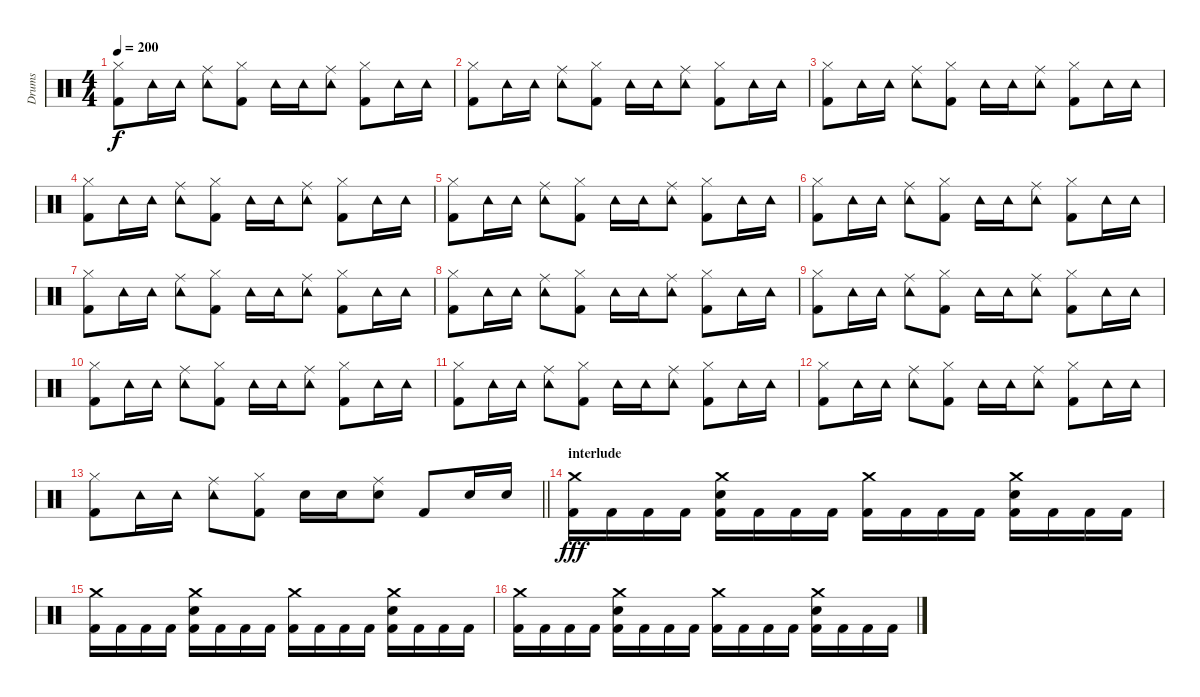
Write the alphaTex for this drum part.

\track ("Drums" "Drums") {instrument percussion}
\staff {score}
\articulation defaults
\ts (4 4)
\tempo 200
\clef neutral
\ks c
("Hi-Hat (closed)" "Kick (hit) 2").8{dy f} "Tambourine (hit)".16 "Tambourine (hit)".16 ("Ride (middle)" "Tambourine (hit)").8 ("Hi-Hat (closed)" "Kick (hit) 2").8 "Tambourine (hit)".16 "Tambourine (hit)".16 ("Ride (middle)" "Tambourine (hit)").8 ("Hi-Hat (closed)" "Kick (hit) 2").8 "Tambourine (hit)".16 "Tambourine (hit)".16 |
("Hi-Hat (closed)" "Kick (hit) 2").8 "Tambourine (hit)".16 "Tambourine (hit)".16 ("Ride (middle)" "Tambourine (hit)").8 ("Hi-Hat (closed)" "Kick (hit) 2").8 "Tambourine (hit)".16 "Tambourine (hit)".16 ("Ride (middle)" "Tambourine (hit)").8 ("Hi-Hat (closed)" "Kick (hit) 2").8 "Tambourine (hit)".16 "Tambourine (hit)".16 |
("Hi-Hat (closed)" "Kick (hit) 2").8 "Tambourine (hit)".16 "Tambourine (hit)".16 ("Ride (middle)" "Tambourine (hit)").8 ("Hi-Hat (closed)" "Kick (hit) 2").8 "Tambourine (hit)".16 "Tambourine (hit)".16 ("Ride (middle)" "Tambourine (hit)").8 ("Hi-Hat (closed)" "Kick (hit) 2").8 "Tambourine (hit)".16 "Tambourine (hit)".16 |
("Hi-Hat (closed)" "Kick (hit) 2").8 "Tambourine (hit)".16 "Tambourine (hit)".16 ("Ride (middle)" "Tambourine (hit)").8 ("Hi-Hat (closed)" "Kick (hit) 2").8 "Tambourine (hit)".16 "Tambourine (hit)".16 ("Ride (middle)" "Tambourine (hit)").8 ("Hi-Hat (closed)" "Kick (hit) 2").8 "Tambourine (hit)".16 "Tambourine (hit)".16 |
("Hi-Hat (closed)" "Kick (hit) 2").8 "Tambourine (hit)".16 "Tambourine (hit)".16 ("Ride (middle)" "Tambourine (hit)").8 ("Hi-Hat (closed)" "Kick (hit) 2").8 "Tambourine (hit)".16 "Tambourine (hit)".16 ("Ride (middle)" "Tambourine (hit)").8 ("Hi-Hat (closed)" "Kick (hit) 2").8 "Tambourine (hit)".16 "Tambourine (hit)".16 |
("Hi-Hat (closed)" "Kick (hit) 2").8 "Tambourine (hit)".16 "Tambourine (hit)".16 ("Ride (middle)" "Tambourine (hit)").8 ("Hi-Hat (closed)" "Kick (hit) 2").8 "Tambourine (hit)".16 "Tambourine (hit)".16 ("Ride (middle)" "Tambourine (hit)").8 ("Hi-Hat (closed)" "Kick (hit) 2").8 "Tambourine (hit)".16 "Tambourine (hit)".16 |
("Hi-Hat (closed)" "Kick (hit) 2").8 "Tambourine (hit)".16 "Tambourine (hit)".16 ("Ride (middle)" "Tambourine (hit)").8 ("Hi-Hat (closed)" "Kick (hit) 2").8 "Tambourine (hit)".16 "Tambourine (hit)".16 ("Ride (middle)" "Tambourine (hit)").8 ("Hi-Hat (closed)" "Kick (hit) 2").8 "Tambourine (hit)".16 "Tambourine (hit)".16 |
("Hi-Hat (closed)" "Kick (hit) 2").8 "Tambourine (hit)".16 "Tambourine (hit)".16 ("Ride (middle)" "Tambourine (hit)").8 ("Hi-Hat (closed)" "Kick (hit) 2").8 "Tambourine (hit)".16 "Tambourine (hit)".16 ("Ride (middle)" "Tambourine (hit)").8 ("Hi-Hat (closed)" "Kick (hit) 2").8 "Tambourine (hit)".16 "Tambourine (hit)".16 |
("Hi-Hat (closed)" "Kick (hit) 2").8 "Tambourine (hit)".16 "Tambourine (hit)".16 ("Ride (middle)" "Tambourine (hit)").8 ("Hi-Hat (closed)" "Kick (hit) 2").8 "Tambourine (hit)".16 "Tambourine (hit)".16 ("Ride (middle)" "Tambourine (hit)").8 ("Hi-Hat (closed)" "Kick (hit) 2").8 "Tambourine (hit)".16 "Tambourine (hit)".16 |
("Hi-Hat (closed)" "Kick (hit) 2").8 "Tambourine (hit)".16 "Tambourine (hit)".16 ("Ride (middle)" "Tambourine (hit)").8 ("Hi-Hat (closed)" "Kick (hit) 2").8 "Tambourine (hit)".16 "Tambourine (hit)".16 ("Ride (middle)" "Tambourine (hit)").8 ("Hi-Hat (closed)" "Kick (hit) 2").8 "Tambourine (hit)".16 "Tambourine (hit)".16 |
("Hi-Hat (closed)" "Kick (hit) 2").8 "Tambourine (hit)".16 "Tambourine (hit)".16 ("Ride (middle)" "Tambourine (hit)").8 ("Hi-Hat (closed)" "Kick (hit) 2").8 "Tambourine (hit)".16 "Tambourine (hit)".16 ("Ride (middle)" "Tambourine (hit)").8 ("Hi-Hat (closed)" "Kick (hit) 2").8 "Tambourine (hit)".16 "Tambourine (hit)".16 |
("Hi-Hat (closed)" "Kick (hit) 2").8 "Tambourine (hit)".16 "Tambourine (hit)".16 ("Ride (middle)" "Tambourine (hit)").8 ("Hi-Hat (closed)" "Kick (hit) 2").8 "Tambourine (hit)".16 "Tambourine (hit)".16 ("Ride (middle)" "Tambourine (hit)").8 ("Hi-Hat (closed)" "Kick (hit) 2").8 "Tambourine (hit)".16 "Tambourine (hit)".16 |
\barLineRight lightlight
("Hi-Hat (closed)" "Kick (hit) 2").8 "Tambourine (hit)".16 "Tambourine (hit)".16 ("Ride (middle)" "Tambourine (hit)").8 ("Hi-Hat (closed)" "Kick (hit) 2").8 "Electric Snare (hit)".16 "Electric Snare (hit)".16 ("Ride (middle)" "Electric Snare (hit)").8 "Kick (hit) 2".8 "Electric Snare (hit)".16 "Electric Snare (hit)".16 |
\section ("" "interlude")
("Crash medium (hit)" "Kick (hit) 2").16{dy fff} "Kick (hit) 2".16 "Kick (hit) 2".16 "Kick (hit) 2".16 ("Crash medium (hit)" "Electric Snare (hit)" "Kick (hit) 2").16 "Kick (hit) 2".16 "Kick (hit) 2".16 "Kick (hit) 2".16 ("Crash medium (hit)" "Kick (hit) 2").16 "Kick (hit) 2".16 "Kick (hit) 2".16 "Kick (hit) 2".16 ("Crash medium (hit)" "Electric Snare (hit)" "Kick (hit) 2").16 "Kick (hit) 2".16 "Kick (hit) 2".16 "Kick (hit) 2".16 |
("Crash medium (hit)" "Kick (hit) 2").16 "Kick (hit) 2".16 "Kick (hit) 2".16 "Kick (hit) 2".16 ("Crash medium (hit)" "Electric Snare (hit)" "Kick (hit) 2").16 "Kick (hit) 2".16 "Kick (hit) 2".16 "Kick (hit) 2".16 ("Crash medium (hit)" "Kick (hit) 2").16 "Kick (hit) 2".16 "Kick (hit) 2".16 "Kick (hit) 2".16 ("Crash medium (hit)" "Electric Snare (hit)" "Kick (hit) 2").16 "Kick (hit) 2".16 "Kick (hit) 2".16 "Kick (hit) 2".16 |
("Crash medium (hit)" "Kick (hit) 2").16 "Kick (hit) 2".16 "Kick (hit) 2".16 "Kick (hit) 2".16 ("Crash medium (hit)" "Electric Snare (hit)" "Kick (hit) 2").16 "Kick (hit) 2".16 "Kick (hit) 2".16 "Kick (hit) 2".16 ("Crash medium (hit)" "Kick (hit) 2").16 "Kick (hit) 2".16 "Kick (hit) 2".16 "Kick (hit) 2".16 ("Crash medium (hit)" "Electric Snare (hit)" "Kick (hit) 2").16 "Kick (hit) 2".16 "Kick (hit) 2".16 "Kick (hit) 2".16
